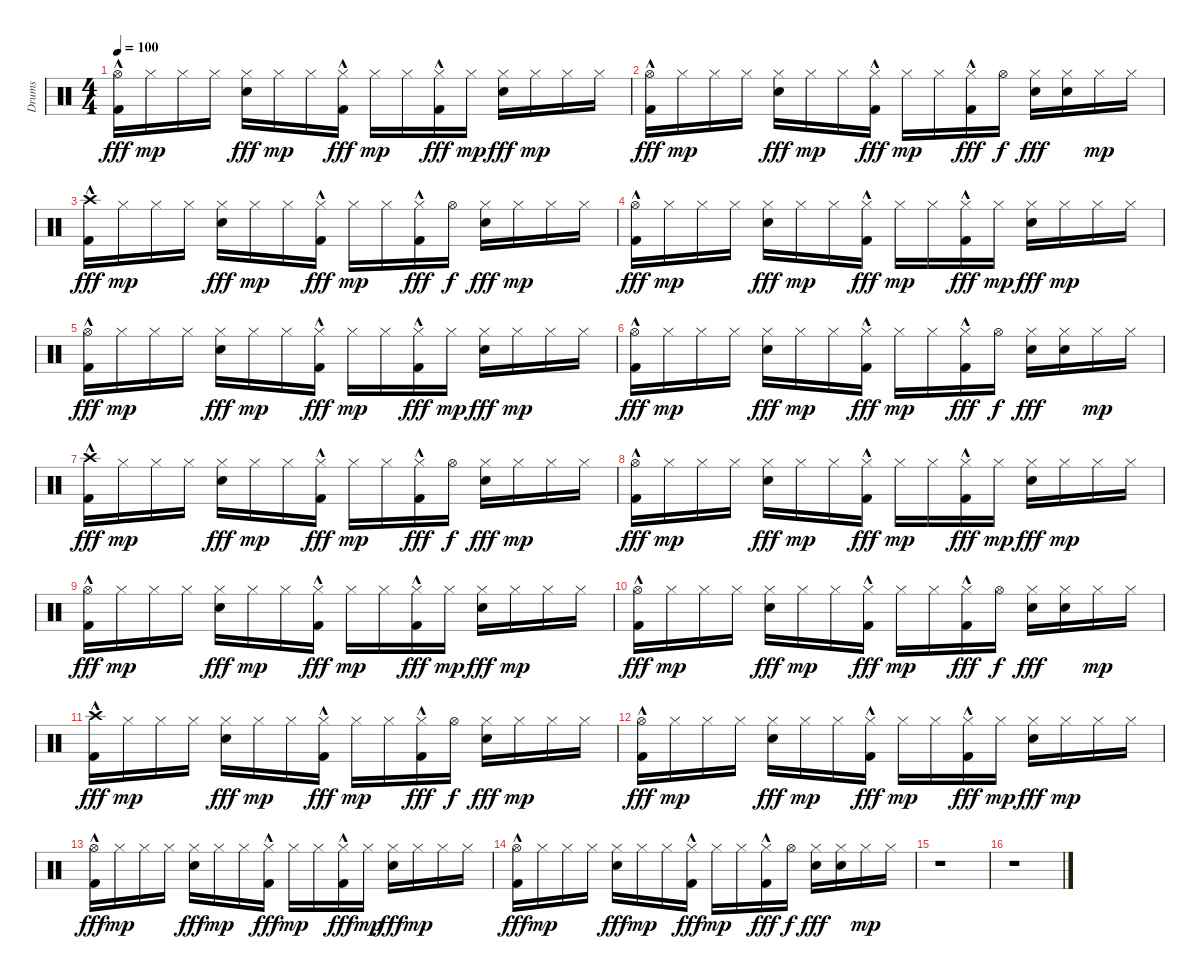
\track ("Drums" "Drums") {instrument percussion}
\staff {score}
\articulation defaults
\ts (4 4)
\tempo 100
\clef neutral
\ks c
("Hi-Hat (open)" "Kick (hit) 2"{hac}).16{dy fff} "Hi-Hat (closed)".16{dy mp} "Hi-Hat (closed)".16 "Hi-Hat (closed)".16 ("Hi-Hat (closed)" "Snare (hit) 2").16{dy fff} "Hi-Hat (closed)".16{dy mp} "Hi-Hat (closed)".16 ("Hi-Hat (closed)" "Kick (hit) 2"{hac}).16{dy fff} "Hi-Hat (closed)".16{dy mp} "Hi-Hat (closed)".16 ("Hi-Hat (closed)" "Kick (hit) 2"{hac}).16{dy fff} "Hi-Hat (closed)".16{dy mp} ("Hi-Hat (closed)" "Snare (hit) 2").16{dy fff} "Hi-Hat (closed)".16{dy mp} "Hi-Hat (closed)".16 "Hi-Hat (closed)".16 |
("Hi-Hat (open)" "Kick (hit) 2"{hac}).16{dy fff} "Hi-Hat (closed)".16{dy mp} "Hi-Hat (closed)".16 "Hi-Hat (closed)".16 ("Hi-Hat (closed)" "Snare (hit) 2").16{dy fff} "Hi-Hat (closed)".16{dy mp} "Hi-Hat (closed)".16 ("Hi-Hat (closed)" "Kick (hit) 2"{hac}).16{dy fff} "Hi-Hat (closed)".16{dy mp} "Hi-Hat (closed)".16 ("Hi-Hat (closed)" "Kick (hit) 2"{hac}).16{dy fff} "Hi-Hat (open)".16{dy f} ("Hi-Hat (closed)" "Snare (hit) 2").16{dy fff} ("Hi-Hat (closed)" "Snare (hit) 2").16 "Hi-Hat (closed)".16{dy mp} "Hi-Hat (closed)".16 |
("Crash high (hit)" "Kick (hit) 2"{hac}).16{dy fff} "Hi-Hat (closed)".16{dy mp} "Hi-Hat (closed)".16 "Hi-Hat (closed)".16 ("Hi-Hat (closed)" "Snare (hit) 2").16{dy fff} "Hi-Hat (closed)".16{dy mp} "Hi-Hat (closed)".16 ("Hi-Hat (closed)" "Kick (hit) 2"{hac}).16{dy fff} "Hi-Hat (closed)".16{dy mp} "Hi-Hat (closed)".16 ("Hi-Hat (closed)" "Kick (hit) 2"{hac}).16{dy fff} "Hi-Hat (open)".16{dy f} ("Hi-Hat (closed)" "Snare (hit) 2").16{dy fff} "Hi-Hat (closed)".16{dy mp} "Hi-Hat (closed)".16 "Hi-Hat (closed)".16 |
("Hi-Hat (open)" "Kick (hit) 2"{hac}).16{dy fff} "Hi-Hat (closed)".16{dy mp} "Hi-Hat (closed)".16 "Hi-Hat (closed)".16 ("Hi-Hat (closed)" "Snare (hit) 2").16{dy fff} "Hi-Hat (closed)".16{dy mp} "Hi-Hat (closed)".16 ("Hi-Hat (closed)" "Kick (hit) 2"{hac}).16{dy fff} "Hi-Hat (closed)".16{dy mp} "Hi-Hat (closed)".16 ("Hi-Hat (closed)" "Kick (hit) 2"{hac}).16{dy fff} "Hi-Hat (closed)".16{dy mp} ("Hi-Hat (closed)" "Snare (hit) 2").16{dy fff} "Hi-Hat (closed)".16{dy mp} "Hi-Hat (closed)".16 "Hi-Hat (closed)".16 |
("Hi-Hat (open)" "Kick (hit) 2"{hac}).16{dy fff} "Hi-Hat (closed)".16{dy mp} "Hi-Hat (closed)".16 "Hi-Hat (closed)".16 ("Hi-Hat (closed)" "Snare (hit) 2").16{dy fff} "Hi-Hat (closed)".16{dy mp} "Hi-Hat (closed)".16 ("Hi-Hat (closed)" "Kick (hit) 2"{hac}).16{dy fff} "Hi-Hat (closed)".16{dy mp} "Hi-Hat (closed)".16 ("Hi-Hat (closed)" "Kick (hit) 2"{hac}).16{dy fff} "Hi-Hat (closed)".16{dy mp} ("Hi-Hat (closed)" "Snare (hit) 2").16{dy fff} "Hi-Hat (closed)".16{dy mp} "Hi-Hat (closed)".16 "Hi-Hat (closed)".16 |
("Hi-Hat (open)" "Kick (hit) 2"{hac}).16{dy fff} "Hi-Hat (closed)".16{dy mp} "Hi-Hat (closed)".16 "Hi-Hat (closed)".16 ("Hi-Hat (closed)" "Snare (hit) 2").16{dy fff} "Hi-Hat (closed)".16{dy mp} "Hi-Hat (closed)".16 ("Hi-Hat (closed)" "Kick (hit) 2"{hac}).16{dy fff} "Hi-Hat (closed)".16{dy mp} "Hi-Hat (closed)".16 ("Hi-Hat (closed)" "Kick (hit) 2"{hac}).16{dy fff} "Hi-Hat (open)".16{dy f} ("Hi-Hat (closed)" "Snare (hit) 2").16{dy fff} ("Hi-Hat (closed)" "Snare (hit) 2").16 "Hi-Hat (closed)".16{dy mp} "Hi-Hat (closed)".16 |
("Crash high (hit)" "Kick (hit) 2"{hac}).16{dy fff} "Hi-Hat (closed)".16{dy mp} "Hi-Hat (closed)".16 "Hi-Hat (closed)".16 ("Hi-Hat (closed)" "Snare (hit) 2").16{dy fff} "Hi-Hat (closed)".16{dy mp} "Hi-Hat (closed)".16 ("Hi-Hat (closed)" "Kick (hit) 2"{hac}).16{dy fff} "Hi-Hat (closed)".16{dy mp} "Hi-Hat (closed)".16 ("Hi-Hat (closed)" "Kick (hit) 2"{hac}).16{dy fff} "Hi-Hat (open)".16{dy f} ("Hi-Hat (closed)" "Snare (hit) 2").16{dy fff} "Hi-Hat (closed)".16{dy mp} "Hi-Hat (closed)".16 "Hi-Hat (closed)".16 |
("Hi-Hat (open)" "Kick (hit) 2"{hac}).16{dy fff} "Hi-Hat (closed)".16{dy mp} "Hi-Hat (closed)".16 "Hi-Hat (closed)".16 ("Hi-Hat (closed)" "Snare (hit) 2").16{dy fff} "Hi-Hat (closed)".16{dy mp} "Hi-Hat (closed)".16 ("Hi-Hat (closed)" "Kick (hit) 2"{hac}).16{dy fff} "Hi-Hat (closed)".16{dy mp} "Hi-Hat (closed)".16 ("Hi-Hat (closed)" "Kick (hit) 2"{hac}).16{dy fff} "Hi-Hat (closed)".16{dy mp} ("Hi-Hat (closed)" "Snare (hit) 2").16{dy fff} "Hi-Hat (closed)".16{dy mp} "Hi-Hat (closed)".16 "Hi-Hat (closed)".16 |
("Hi-Hat (open)" "Kick (hit) 2"{hac}).16{dy fff} "Hi-Hat (closed)".16{dy mp} "Hi-Hat (closed)".16 "Hi-Hat (closed)".16 ("Hi-Hat (closed)" "Snare (hit) 2").16{dy fff} "Hi-Hat (closed)".16{dy mp} "Hi-Hat (closed)".16 ("Hi-Hat (closed)" "Kick (hit) 2"{hac}).16{dy fff} "Hi-Hat (closed)".16{dy mp} "Hi-Hat (closed)".16 ("Hi-Hat (closed)" "Kick (hit) 2"{hac}).16{dy fff} "Hi-Hat (closed)".16{dy mp} ("Hi-Hat (closed)" "Snare (hit) 2").16{dy fff} "Hi-Hat (closed)".16{dy mp} "Hi-Hat (closed)".16 "Hi-Hat (closed)".16 |
("Hi-Hat (open)" "Kick (hit) 2"{hac}).16{dy fff} "Hi-Hat (closed)".16{dy mp} "Hi-Hat (closed)".16 "Hi-Hat (closed)".16 ("Hi-Hat (closed)" "Snare (hit) 2").16{dy fff} "Hi-Hat (closed)".16{dy mp} "Hi-Hat (closed)".16 ("Hi-Hat (closed)" "Kick (hit) 2"{hac}).16{dy fff} "Hi-Hat (closed)".16{dy mp} "Hi-Hat (closed)".16 ("Hi-Hat (closed)" "Kick (hit) 2"{hac}).16{dy fff} "Hi-Hat (open)".16{dy f} ("Hi-Hat (closed)" "Snare (hit) 2").16{dy fff} ("Hi-Hat (closed)" "Snare (hit) 2").16 "Hi-Hat (closed)".16{dy mp} "Hi-Hat (closed)".16 |
("Crash high (hit)" "Kick (hit) 2"{hac}).16{dy fff} "Hi-Hat (closed)".16{dy mp} "Hi-Hat (closed)".16 "Hi-Hat (closed)".16 ("Hi-Hat (closed)" "Snare (hit) 2").16{dy fff} "Hi-Hat (closed)".16{dy mp} "Hi-Hat (closed)".16 ("Hi-Hat (closed)" "Kick (hit) 2"{hac}).16{dy fff} "Hi-Hat (closed)".16{dy mp} "Hi-Hat (closed)".16 ("Hi-Hat (closed)" "Kick (hit) 2"{hac}).16{dy fff} "Hi-Hat (open)".16{dy f} ("Hi-Hat (closed)" "Snare (hit) 2").16{dy fff} "Hi-Hat (closed)".16{dy mp} "Hi-Hat (closed)".16 "Hi-Hat (closed)".16 |
("Hi-Hat (open)" "Kick (hit) 2"{hac}).16{dy fff} "Hi-Hat (closed)".16{dy mp} "Hi-Hat (closed)".16 "Hi-Hat (closed)".16 ("Hi-Hat (closed)" "Snare (hit) 2").16{dy fff} "Hi-Hat (closed)".16{dy mp} "Hi-Hat (closed)".16 ("Hi-Hat (closed)" "Kick (hit) 2"{hac}).16{dy fff} "Hi-Hat (closed)".16{dy mp} "Hi-Hat (closed)".16 ("Hi-Hat (closed)" "Kick (hit) 2"{hac}).16{dy fff} "Hi-Hat (closed)".16{dy mp} ("Hi-Hat (closed)" "Snare (hit) 2").16{dy fff} "Hi-Hat (closed)".16{dy mp} "Hi-Hat (closed)".16 "Hi-Hat (closed)".16 |
("Hi-Hat (open)" "Kick (hit) 2"{hac}).16{dy fff} "Hi-Hat (closed)".16{dy mp} "Hi-Hat (closed)".16 "Hi-Hat (closed)".16 ("Hi-Hat (closed)" "Snare (hit) 2").16{dy fff} "Hi-Hat (closed)".16{dy mp} "Hi-Hat (closed)".16 ("Hi-Hat (closed)" "Kick (hit) 2"{hac}).16{dy fff} "Hi-Hat (closed)".16{dy mp} "Hi-Hat (closed)".16 ("Hi-Hat (closed)" "Kick (hit) 2"{hac}).16{dy fff} "Hi-Hat (closed)".16{dy mp} ("Hi-Hat (closed)" "Snare (hit) 2").16{dy fff} "Hi-Hat (closed)".16{dy mp} "Hi-Hat (closed)".16 "Hi-Hat (closed)".16 |
("Hi-Hat (open)" "Kick (hit) 2"{hac}).16{dy fff} "Hi-Hat (closed)".16{dy mp} "Hi-Hat (closed)".16 "Hi-Hat (closed)".16 ("Hi-Hat (closed)" "Snare (hit) 2").16{dy fff} "Hi-Hat (closed)".16{dy mp} "Hi-Hat (closed)".16 ("Hi-Hat (closed)" "Kick (hit) 2"{hac}).16{dy fff} "Hi-Hat (closed)".16{dy mp} "Hi-Hat (closed)".16 ("Hi-Hat (closed)" "Kick (hit) 2"{hac}).16{dy fff} "Hi-Hat (open)".16{dy f} ("Hi-Hat (closed)" "Snare (hit) 2").16{dy fff} ("Hi-Hat (closed)" "Snare (hit) 2").16 "Hi-Hat (closed)".16{dy mp} "Hi-Hat (closed)".16 |
r.1 |
r.1
